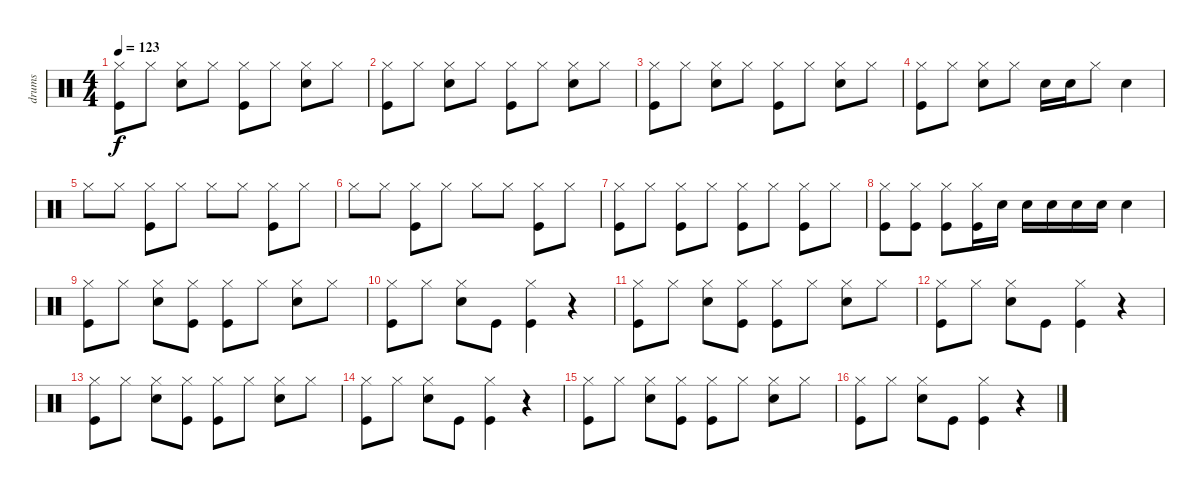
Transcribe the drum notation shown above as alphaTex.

\track ("drums" "drums") {instrument percussion}
\staff {score}
\articulation defaults
\ts (4 4)
\tempo 123
\clef neutral
\ks c
("Hi-Hat (closed)" "Kick (hit)").8{dy f} "Hi-Hat (closed)".8 ("Hi-Hat (closed)" "Electric Snare (hit)").8 "Hi-Hat (closed)".8 ("Hi-Hat (closed)" "Kick (hit)").8 "Hi-Hat (closed)".8 ("Hi-Hat (closed)" "Electric Snare (hit)").8 "Hi-Hat (closed)".8 |
("Hi-Hat (closed)" "Kick (hit)").8 "Hi-Hat (closed)".8 ("Hi-Hat (closed)" "Electric Snare (hit)").8 "Hi-Hat (closed)".8 ("Hi-Hat (closed)" "Kick (hit)").8 "Hi-Hat (closed)".8 ("Hi-Hat (closed)" "Electric Snare (hit)").8 "Hi-Hat (closed)".8 |
("Hi-Hat (closed)" "Kick (hit)").8 "Hi-Hat (closed)".8 ("Hi-Hat (closed)" "Electric Snare (hit)").8 "Hi-Hat (closed)".8 ("Hi-Hat (closed)" "Kick (hit)").8 "Hi-Hat (closed)".8 ("Hi-Hat (closed)" "Electric Snare (hit)").8 "Hi-Hat (closed)".8 |
("Hi-Hat (closed)" "Kick (hit)").8 "Hi-Hat (closed)".8 ("Hi-Hat (closed)" "Electric Snare (hit)").8 "Hi-Hat (closed)".8 "Electric Snare (hit)".16 "Electric Snare (hit)".16 "Hi-Hat (closed)".8 "Electric Snare (hit)".4 |
"Hi-Hat (closed)".8 "Hi-Hat (closed)".8 ("Hi-Hat (closed)" "Kick (hit)").8 "Hi-Hat (closed)".8 "Hi-Hat (closed)".8 "Hi-Hat (closed)".8 ("Hi-Hat (closed)" "Kick (hit)").8 "Hi-Hat (closed)".8 |
"Hi-Hat (closed)".8 "Hi-Hat (closed)".8 ("Hi-Hat (closed)" "Kick (hit)").8 "Hi-Hat (closed)".8 "Hi-Hat (closed)".8 "Hi-Hat (closed)".8 ("Hi-Hat (closed)" "Kick (hit)").8 "Hi-Hat (closed)".8 |
("Hi-Hat (closed)" "Kick (hit)").8 "Hi-Hat (closed)".8 ("Hi-Hat (closed)" "Kick (hit)").8 "Hi-Hat (closed)".8 ("Hi-Hat (closed)" "Kick (hit)").8 "Hi-Hat (closed)".8 ("Hi-Hat (closed)" "Kick (hit)").8 "Hi-Hat (closed)".8 |
("Hi-Hat (closed)" "Kick (hit)").8 ("Hi-Hat (closed)" "Kick (hit)").8 ("Hi-Hat (closed)" "Kick (hit)").8 ("Hi-Hat (closed)" "Kick (hit)").16 "Electric Snare (hit)".16 "Electric Snare (hit)".16 "Electric Snare (hit)".16 "Electric Snare (hit)".16 "Electric Snare (hit)".16 "Electric Snare (hit)".4 |
("Hi-Hat (closed)" "Kick (hit)").8 "Hi-Hat (closed)".8 ("Hi-Hat (closed)" "Electric Snare (hit)").8 ("Hi-Hat (closed)" "Kick (hit)").8 ("Hi-Hat (closed)" "Kick (hit)").8 "Hi-Hat (closed)".8 ("Hi-Hat (closed)" "Electric Snare (hit)").8 "Hi-Hat (closed)".8 |
("Hi-Hat (closed)" "Kick (hit)").8 "Hi-Hat (closed)".8 ("Hi-Hat (closed)" "Electric Snare (hit)").8 "Kick (hit)".8 ("Hi-Hat (closed)" "Kick (hit)").4 r.4 |
("Hi-Hat (closed)" "Kick (hit)").8 "Hi-Hat (closed)".8 ("Hi-Hat (closed)" "Electric Snare (hit)").8 ("Hi-Hat (closed)" "Kick (hit)").8 ("Hi-Hat (closed)" "Kick (hit)").8 "Hi-Hat (closed)".8 ("Hi-Hat (closed)" "Electric Snare (hit)").8 "Hi-Hat (closed)".8 |
("Hi-Hat (closed)" "Kick (hit)").8 "Hi-Hat (closed)".8 ("Hi-Hat (closed)" "Electric Snare (hit)").8 "Kick (hit)".8 ("Hi-Hat (closed)" "Kick (hit)").4 r.4 |
("Hi-Hat (closed)" "Kick (hit)").8 "Hi-Hat (closed)".8 ("Hi-Hat (closed)" "Electric Snare (hit)").8 ("Hi-Hat (closed)" "Kick (hit)").8 ("Hi-Hat (closed)" "Kick (hit)").8 "Hi-Hat (closed)".8 ("Hi-Hat (closed)" "Electric Snare (hit)").8 "Hi-Hat (closed)".8 |
("Hi-Hat (closed)" "Kick (hit)").8 "Hi-Hat (closed)".8 ("Hi-Hat (closed)" "Electric Snare (hit)").8 "Kick (hit)".8 ("Hi-Hat (closed)" "Kick (hit)").4 r.4 |
("Hi-Hat (closed)" "Kick (hit)").8 "Hi-Hat (closed)".8 ("Hi-Hat (closed)" "Electric Snare (hit)").8 ("Hi-Hat (closed)" "Kick (hit)").8 ("Hi-Hat (closed)" "Kick (hit)").8 "Hi-Hat (closed)".8 ("Hi-Hat (closed)" "Electric Snare (hit)").8 "Hi-Hat (closed)".8 |
("Hi-Hat (closed)" "Kick (hit)").8 "Hi-Hat (closed)".8 ("Hi-Hat (closed)" "Electric Snare (hit)").8 "Kick (hit)".8 ("Hi-Hat (closed)" "Kick (hit)").4 r.4
